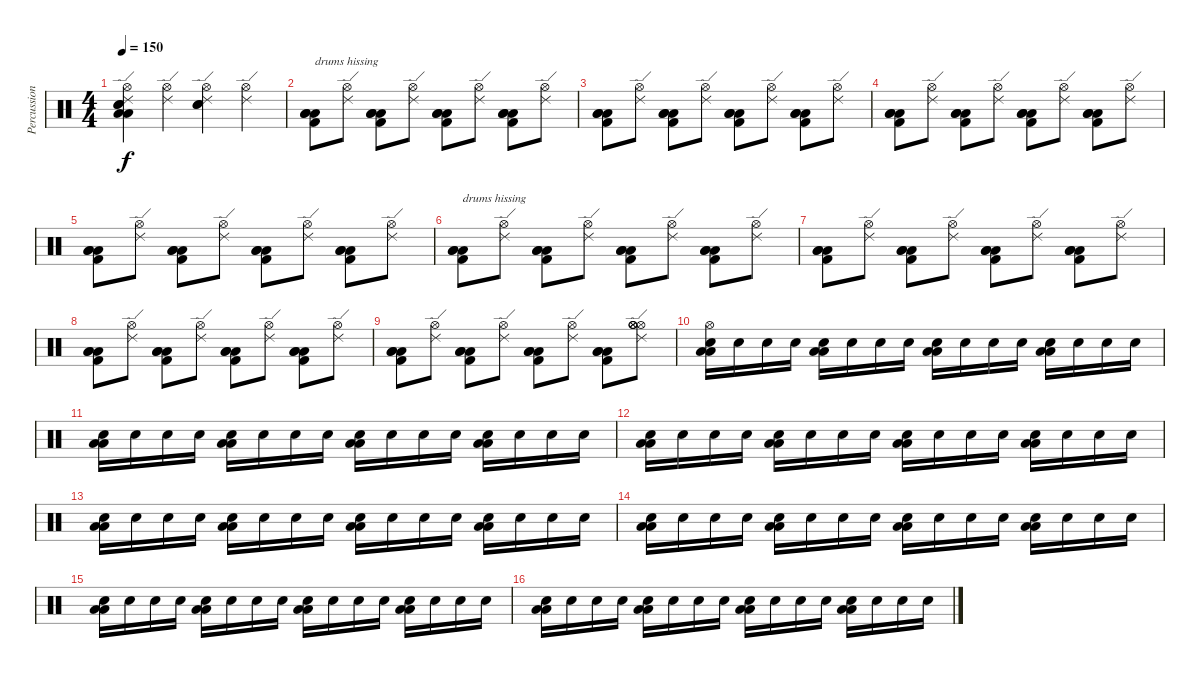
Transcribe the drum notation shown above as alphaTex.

\track ("Percussion" "Percussion") {instrument percussion}
\staff {score}
\articulation defaults
\ts (4 4)
\tempo 150
\clef neutral
\ks c
("Hi-Hat (open)" "Ride (edge) 2" "Low Tom (hit)" "Low Tom (hit)" "Hand Clap (hit)" "Hand Clap (hit)").4{dy f} ("Hi-Hat (open)" "Ride (edge) 2").4 ("Hi-Hat (open)" "Ride (edge) 2" "Hand Clap (hit)" "Hand Clap (hit)").4 ("Hi-Hat (open)" "Ride (edge) 2").4 |
("Kick (hit) 2" "Low Tom (hit)" "Low Tom (hit)" "Low Tom (hit)").8{txt "drums hissing"} ("Ride (edge) 2" "Hi-Hat (open)").8 ("Kick (hit) 2" "Low Tom (hit)" "Low Tom (hit)" "Low Tom (hit)").8 ("Ride (edge) 2" "Hi-Hat (open)").8 ("Kick (hit) 2" "Low Tom (hit)" "Low Tom (hit)" "Low Tom (hit)").8 ("Ride (edge) 2" "Hi-Hat (open)").8 ("Kick (hit) 2" "Low Tom (hit)" "Low Tom (hit)" "Low Tom (hit)").8 ("Ride (edge) 2" "Hi-Hat (open)").8 |
("Kick (hit) 2" "Low Tom (hit)" "Low Tom (hit)" "Low Tom (hit)").8 ("Ride (edge) 2" "Hi-Hat (open)").8 ("Kick (hit) 2" "Low Tom (hit)" "Low Tom (hit)" "Low Tom (hit)").8 ("Ride (edge) 2" "Hi-Hat (open)").8 ("Kick (hit) 2" "Low Tom (hit)" "Low Tom (hit)" "Low Tom (hit)").8 ("Ride (edge) 2" "Hi-Hat (open)").8 ("Kick (hit) 2" "Low Tom (hit)" "Low Tom (hit)" "Low Tom (hit)").8 ("Ride (edge) 2" "Hi-Hat (open)").8 |
("Kick (hit) 2" "Low Tom (hit)" "Low Tom (hit)" "Low Tom (hit)").8 ("Ride (edge) 2" "Hi-Hat (open)").8 ("Kick (hit) 2" "Low Tom (hit)" "Low Tom (hit)" "Low Tom (hit)").8 ("Ride (edge) 2" "Hi-Hat (open)").8 ("Kick (hit) 2" "Low Tom (hit)" "Low Tom (hit)" "Low Tom (hit)").8 ("Ride (edge) 2" "Hi-Hat (open)").8 ("Kick (hit) 2" "Low Tom (hit)" "Low Tom (hit)" "Low Tom (hit)").8 ("Ride (edge) 2" "Hi-Hat (open)").8 |
("Kick (hit) 2" "Low Tom (hit)" "Low Tom (hit)" "Low Tom (hit)").8 ("Ride (edge) 2" "Hi-Hat (open)").8 ("Kick (hit) 2" "Low Tom (hit)" "Low Tom (hit)" "Low Tom (hit)").8 ("Ride (edge) 2" "Hi-Hat (open)").8 ("Kick (hit) 2" "Low Tom (hit)" "Low Tom (hit)" "Low Tom (hit)").8 ("Ride (edge) 2" "Hi-Hat (open)").8 ("Kick (hit) 2" "Low Tom (hit)" "Low Tom (hit)" "Low Tom (hit)").8 ("Ride (edge) 2" "Hi-Hat (open)").8 |
("Kick (hit) 2" "Low Tom (hit)" "Low Tom (hit)" "Low Tom (hit)").8{txt "drums hissing"} ("Ride (edge) 2" "Hi-Hat (open)").8 ("Kick (hit) 2" "Low Tom (hit)" "Low Tom (hit)" "Low Tom (hit)").8 ("Ride (edge) 2" "Hi-Hat (open)").8 ("Kick (hit) 2" "Low Tom (hit)" "Low Tom (hit)" "Low Tom (hit)").8 ("Ride (edge) 2" "Hi-Hat (open)").8 ("Kick (hit) 2" "Low Tom (hit)" "Low Tom (hit)" "Low Tom (hit)").8 ("Ride (edge) 2" "Hi-Hat (open)").8 |
("Kick (hit) 2" "Low Tom (hit)" "Low Tom (hit)" "Low Tom (hit)").8 ("Ride (edge) 2" "Hi-Hat (open)").8 ("Kick (hit) 2" "Low Tom (hit)" "Low Tom (hit)" "Low Tom (hit)").8 ("Ride (edge) 2" "Hi-Hat (open)").8 ("Kick (hit) 2" "Low Tom (hit)" "Low Tom (hit)" "Low Tom (hit)").8 ("Ride (edge) 2" "Hi-Hat (open)").8 ("Kick (hit) 2" "Low Tom (hit)" "Low Tom (hit)" "Low Tom (hit)").8 ("Ride (edge) 2" "Hi-Hat (open)").8 |
("Kick (hit) 2" "Low Tom (hit)" "Low Tom (hit)" "Low Tom (hit)").8 ("Ride (edge) 2" "Hi-Hat (open)").8 ("Kick (hit) 2" "Low Tom (hit)" "Low Tom (hit)" "Low Tom (hit)").8 ("Ride (edge) 2" "Hi-Hat (open)").8 ("Kick (hit) 2" "Low Tom (hit)" "Low Tom (hit)" "Low Tom (hit)").8 ("Ride (edge) 2" "Hi-Hat (open)").8 ("Kick (hit) 2" "Low Tom (hit)" "Low Tom (hit)" "Low Tom (hit)").8 ("Ride (edge) 2" "Hi-Hat (open)").8 |
("Kick (hit) 2" "Low Tom (hit)" "Low Tom (hit)" "Low Tom (hit)").8 ("Ride (edge) 2" "Hi-Hat (open)").8 ("Kick (hit) 2" "Low Tom (hit)" "Low Tom (hit)" "Low Tom (hit)").8 ("Ride (edge) 2" "Hi-Hat (open)").8 ("Kick (hit) 2" "Low Tom (hit)" "Low Tom (hit)" "Low Tom (hit)").8 ("Ride (edge) 2" "Hi-Hat (open)").8 ("Kick (hit) 2" "Low Tom (hit)" "Low Tom (hit)" "Low Tom (hit)").8 ("Hi-Hat (open)" "Hi-Hat (open)" "Hi-Hat (open)" "Ride (edge) 2" "Hi-Hat (open)").8 |
("Low Tom (hit)" "Low Tom (hit)" "Hi-Hat (open)" "Electric Snare (hit)").16{volume 7} "Snare (hit) 2".16 "Snare (hit) 2".16 "Snare (hit) 2".16 ("Low Tom (hit)" "Low Tom (hit)" "Electric Snare (hit)").16 "Snare (hit) 2".16 "Snare (hit) 2".16 "Snare (hit) 2".16 ("Low Tom (hit)" "Low Tom (hit)" "Electric Snare (hit)").16 "Snare (hit) 2".16 "Snare (hit) 2".16 "Snare (hit) 2".16 ("Low Tom (hit)" "Low Tom (hit)" "Electric Snare (hit)").16 "Snare (hit) 2".16 "Snare (hit) 2".16 "Snare (hit) 2".16 |
("Low Tom (hit)" "Low Tom (hit)" "Electric Snare (hit)").16{volume 8} "Snare (hit) 2".16 "Snare (hit) 2".16 "Snare (hit) 2".16 ("Low Tom (hit)" "Low Tom (hit)" "Electric Snare (hit)").16 "Snare (hit) 2".16 "Snare (hit) 2".16 "Snare (hit) 2".16 ("Low Tom (hit)" "Low Tom (hit)" "Electric Snare (hit)").16 "Snare (hit) 2".16 "Snare (hit) 2".16 "Snare (hit) 2".16 ("Low Tom (hit)" "Low Tom (hit)" "Electric Snare (hit)").16 "Snare (hit) 2".16 "Snare (hit) 2".16 "Snare (hit) 2".16 |
("Low Tom (hit)" "Low Tom (hit)" "Electric Snare (hit)").16{volume 10} "Snare (hit) 2".16 "Snare (hit) 2".16 "Snare (hit) 2".16 ("Low Tom (hit)" "Low Tom (hit)" "Electric Snare (hit)").16 "Snare (hit) 2".16 "Snare (hit) 2".16 "Snare (hit) 2".16 ("Low Tom (hit)" "Low Tom (hit)" "Electric Snare (hit)").16 "Snare (hit) 2".16 "Snare (hit) 2".16 "Snare (hit) 2".16 ("Low Tom (hit)" "Low Tom (hit)" "Electric Snare (hit)").16 "Snare (hit) 2".16 "Snare (hit) 2".16 "Snare (hit) 2".16 |
("Low Tom (hit)" "Low Tom (hit)" "Electric Snare (hit)").16{volume 12} "Snare (hit) 2".16 "Snare (hit) 2".16 "Snare (hit) 2".16 ("Low Tom (hit)" "Low Tom (hit)" "Electric Snare (hit)").16 "Snare (hit) 2".16 "Snare (hit) 2".16 "Snare (hit) 2".16 ("Low Tom (hit)" "Low Tom (hit)" "Electric Snare (hit)").16 "Snare (hit) 2".16 "Snare (hit) 2".16 "Snare (hit) 2".16 ("Low Tom (hit)" "Low Tom (hit)" "Electric Snare (hit)").16 "Snare (hit) 2".16 "Snare (hit) 2".16 "Snare (hit) 2".16 |
("Low Tom (hit)" "Low Tom (hit)" "Electric Snare (hit)").16{volume 13} "Snare (hit) 2".16 "Snare (hit) 2".16 "Snare (hit) 2".16 ("Low Tom (hit)" "Low Tom (hit)" "Electric Snare (hit)").16 "Snare (hit) 2".16 "Snare (hit) 2".16 "Snare (hit) 2".16 ("Low Tom (hit)" "Low Tom (hit)" "Electric Snare (hit)").16 "Snare (hit) 2".16 "Snare (hit) 2".16 "Snare (hit) 2".16 ("Low Tom (hit)" "Low Tom (hit)" "Electric Snare (hit)").16 "Snare (hit) 2".16 "Snare (hit) 2".16 "Snare (hit) 2".16 |
("Low Tom (hit)" "Low Tom (hit)" "Electric Snare (hit)").16{volume 14} "Snare (hit) 2".16 "Snare (hit) 2".16 "Snare (hit) 2".16 ("Low Tom (hit)" "Low Tom (hit)" "Electric Snare (hit)").16 "Snare (hit) 2".16 "Snare (hit) 2".16 "Snare (hit) 2".16 ("Low Tom (hit)" "Low Tom (hit)" "Electric Snare (hit)").16 "Snare (hit) 2".16 "Snare (hit) 2".16 "Snare (hit) 2".16 ("Low Tom (hit)" "Low Tom (hit)" "Electric Snare (hit)").16 "Snare (hit) 2".16 "Snare (hit) 2".16 "Snare (hit) 2".16 |
("Low Tom (hit)" "Low Tom (hit)" "Electric Snare (hit)").16{volume 15} "Snare (hit) 2".16 "Snare (hit) 2".16 "Snare (hit) 2".16 ("Low Tom (hit)" "Low Tom (hit)" "Electric Snare (hit)").16 "Snare (hit) 2".16 "Snare (hit) 2".16 "Snare (hit) 2".16 ("Low Tom (hit)" "Low Tom (hit)" "Electric Snare (hit)").16 "Snare (hit) 2".16 "Snare (hit) 2".16 "Snare (hit) 2".16 ("Low Tom (hit)" "Low Tom (hit)" "Electric Snare (hit)").16 "Snare (hit) 2".16 "Snare (hit) 2".16 "Snare (hit) 2".16
